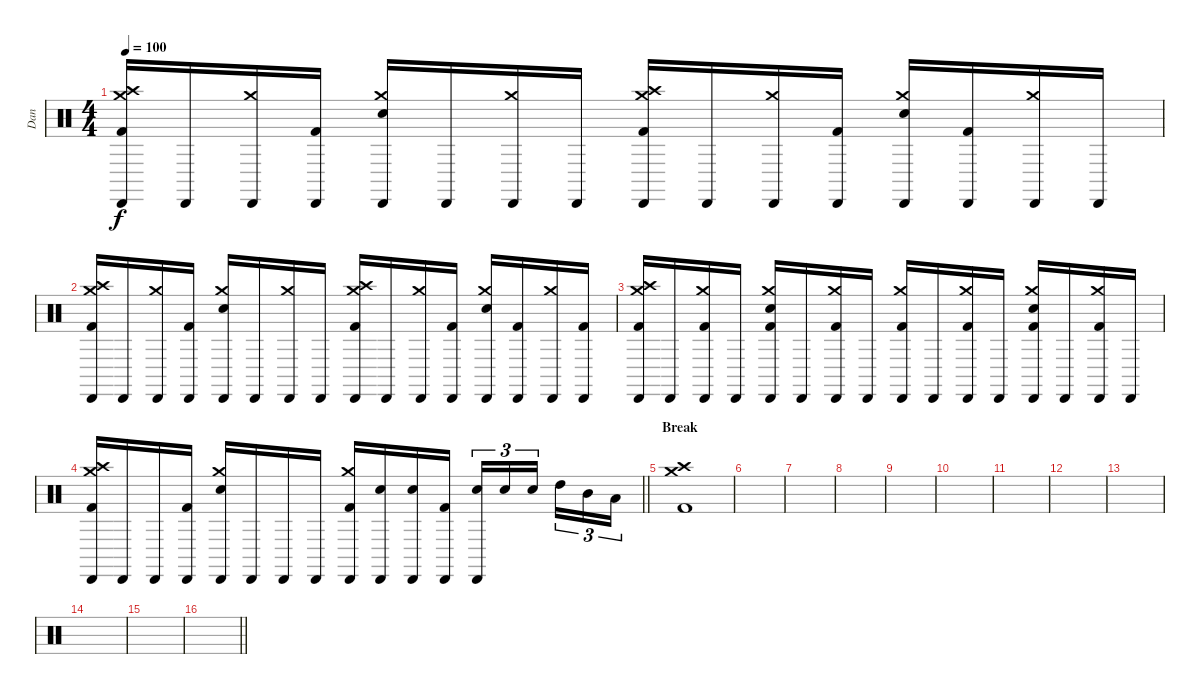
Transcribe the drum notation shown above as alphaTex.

\track ("Dan" "Dan") {instrument percussion}
\staff {score}
\articulation defaults
\ts (4 4)
\tempo 100
\clef neutral
\ks c
("Cabasa (hit)" "Crash high (hit)" "Crash medium (hit)" "Kick (hit) 2").16{dy f} "Cabasa (hit)".16 ("Cabasa (hit)" "Crash medium (hit)").16 ("Cabasa (hit)" "Kick (hit) 2").16 ("Cabasa (hit)" "Crash medium (hit)" "Snare (hit) 2").16 "Cabasa (hit)".16 ("Cabasa (hit)" "Crash medium (hit)").16 "Cabasa (hit)".16 ("Cabasa (hit)" "Crash high (hit)" "Crash medium (hit)" "Kick (hit) 2").16 "Cabasa (hit)".16 ("Cabasa (hit)" "Crash medium (hit)").16 ("Cabasa (hit)" "Kick (hit) 2").16 ("Cabasa (hit)" "Crash medium (hit)" "Snare (hit) 2").16 ("Cabasa (hit)" "Kick (hit) 2").16 ("Cabasa (hit)" "Crash medium (hit)").16 "Cabasa (hit)".16 |
("Cabasa (hit)" "Crash high (hit)" "Crash medium (hit)" "Kick (hit) 2").16 "Cabasa (hit)".16 ("Cabasa (hit)" "Crash medium (hit)").16 ("Cabasa (hit)" "Kick (hit) 2").16 ("Cabasa (hit)" "Crash medium (hit)" "Snare (hit) 2").16 "Cabasa (hit)".16 ("Cabasa (hit)" "Crash medium (hit)").16 "Cabasa (hit)".16 ("Cabasa (hit)" "Crash high (hit)" "Crash medium (hit)" "Kick (hit) 2").16 "Cabasa (hit)".16 ("Cabasa (hit)" "Crash medium (hit)").16 ("Cabasa (hit)" "Kick (hit) 2").16 ("Cabasa (hit)" "Crash medium (hit)" "Snare (hit) 2").16 ("Cabasa (hit)" "Kick (hit) 2").16 ("Cabasa (hit)" "Crash medium (hit)").16 ("Cabasa (hit)" "Kick (hit) 2").16 |
("Cabasa (hit)" "Crash high (hit)" "Crash medium (hit)" "Kick (hit) 2").16 "Cabasa (hit)".16 ("Cabasa (hit)" "Crash medium (hit)" "Kick (hit) 2").16 "Cabasa (hit)".16 ("Cabasa (hit)" "Crash medium (hit)" "Snare (hit) 2" "Kick (hit) 2").16 "Cabasa (hit)".16 ("Cabasa (hit)" "Crash medium (hit)" "Kick (hit) 2").16 "Cabasa (hit)".16 ("Cabasa (hit)" "Crash medium (hit)" "Kick (hit) 2").16 "Cabasa (hit)".16 ("Cabasa (hit)" "Crash medium (hit)" "Kick (hit) 2").16 "Cabasa (hit)".16 ("Cabasa (hit)" "Crash medium (hit)" "Snare (hit) 2" "Kick (hit) 2").16 "Cabasa (hit)".16 ("Cabasa (hit)" "Crash medium (hit)" "Kick (hit) 2").16 "Cabasa (hit)".16 |
\barLineRight lightlight
("Cabasa (hit)" "Crash high (hit)" "Crash medium (hit)" "Kick (hit) 2").16 "Cabasa (hit)".16 "Cabasa (hit)".16 ("Cabasa (hit)" "Kick (hit) 2").16 ("Cabasa (hit)" "Crash medium (hit)" "Snare (hit) 2").16 "Cabasa (hit)".16 "Cabasa (hit)".16 "Cabasa (hit)".16 ("Cabasa (hit)" "Crash medium (hit)" "Kick (hit) 2").16 ("Cabasa (hit)" "Snare (hit) 2").16 ("Cabasa (hit)" "Snare (hit) 2").16 ("Cabasa (hit)" "Kick (hit) 2").16 ("Cabasa (hit)" "Snare (hit) 2").16{tu (3 2)} "Snare (hit) 2".16{tu (3 2)} "Snare (hit) 2".16{tu (3 2) beam splitsecondary} "High Tom (hit)".16{tu (3 2)} "Mid Tom (hit)".16{tu (3 2)} "Low Tom (hit)".16{tu (3 2)} |
\section ("" "Break")
("Crash high (hit)" "Crash medium (hit)" "Kick (hit) 2").1 |
|
|
|
|
|
|
|
|
|
|
\barLineRight lightlight
